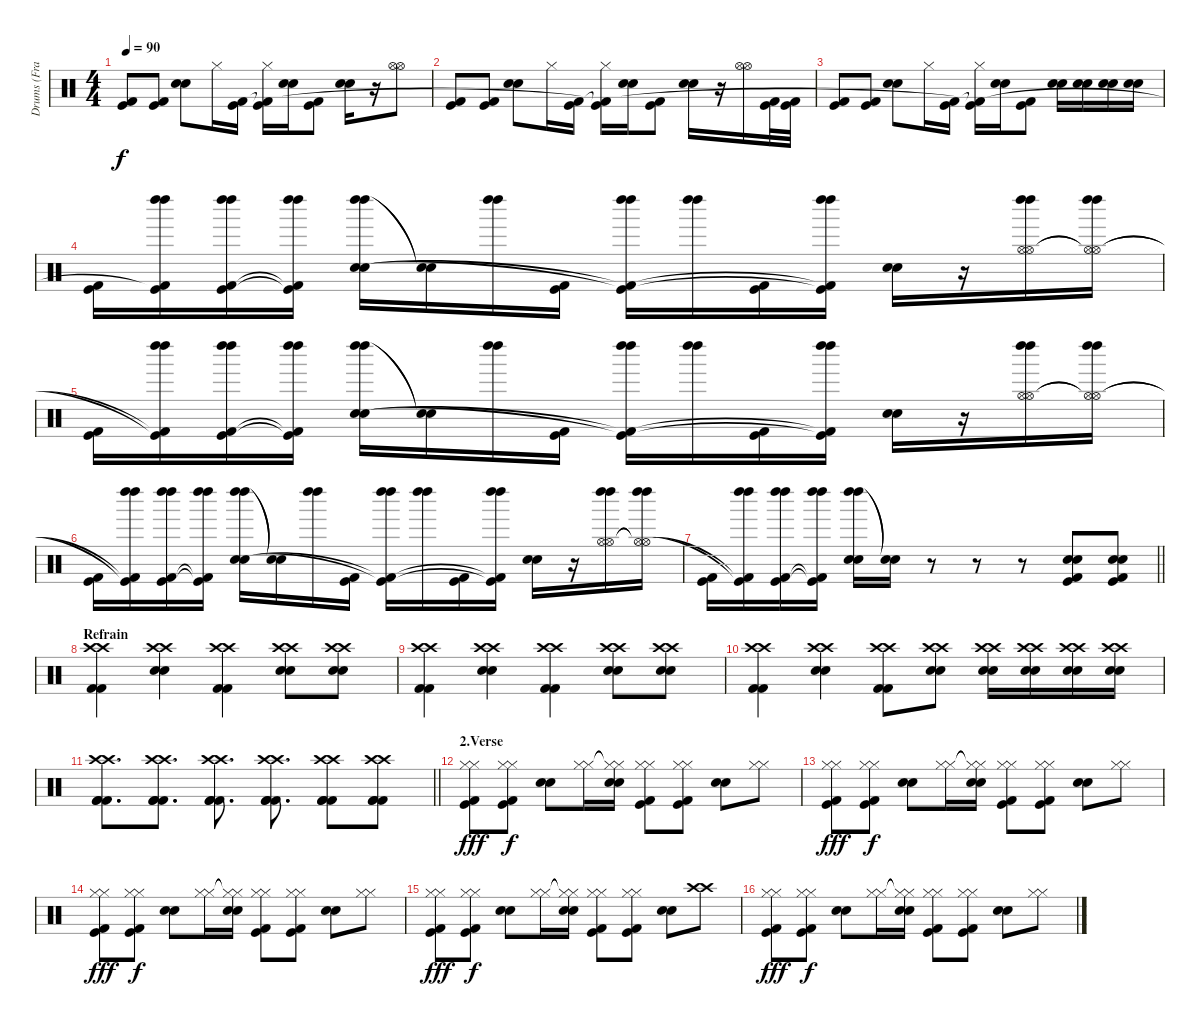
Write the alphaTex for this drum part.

\track ("Drums (Frank Ferrer)" "Drums (Fra") {instrument percussion}
\staff {score}
\articulation defaults
\ts (4 4)
\tempo 90
\clef neutral
\ks c
("Kick (hit)" "Kick (hit) 2").8{dy f} ("Kick (hit)" "Kick (hit) 2").8 ("Snare (hit) 2" "Snare (hit) 2").8 "Hi-Hat (closed)".16 ("Kick (hit)" "Kick (hit) 2").16 ("Hi-Hat (closed)" "Kick (hit)"{t} "Kick (hit) 2"{t}).16 ("Snare (hit) 2" "Snare (hit) 2").16 ("Kick (hit)" "Kick (hit) 2").8 ("Snare (hit) 2" "Snare (hit) 2").16 r.16 ("Hi-Hat (open)" "Hi-Hat (open)").8 |
("Kick (hit)" "Kick (hit) 2").8 ("Kick (hit)" "Kick (hit) 2").8 ("Snare (hit) 2" "Snare (hit) 2").8 "Hi-Hat (closed)".16 ("Kick (hit)" "Kick (hit) 2").16 ("Hi-Hat (closed)" "Kick (hit)"{t} "Kick (hit) 2"{t}).16 ("Snare (hit) 2" "Snare (hit) 2").16 ("Kick (hit)" "Kick (hit) 2").8 ("Snare (hit) 2" "Snare (hit) 2").16 r.16 ("Hi-Hat (open)" "Hi-Hat (open)").16 ("Kick (hit)" "Kick (hit) 2").32 ("Kick (hit)" "Kick (hit) 2").32 |
("Kick (hit)" "Kick (hit) 2").8 ("Kick (hit)" "Kick (hit) 2").8 ("Snare (hit) 2" "Snare (hit) 2").8 "Hi-Hat (closed)".16 ("Kick (hit)" "Kick (hit) 2").16 ("Hi-Hat (closed)" "Kick (hit)"{t} "Kick (hit) 2"{t}).16 ("Snare (hit) 2" "Snare (hit) 2").16 ("Kick (hit)" "Kick (hit) 2").8 ("Snare (hit) 2" "Snare (hit) 2").16 ("Snare (hit) 2" "Snare (hit) 2").16 ("Snare (hit) 2" "Snare (hit) 2").16 ("Snare (hit) 2" "Snare (hit) 2").16 |
("Kick (hit)" "Kick (hit) 2").16 ("Left Maraca (hit)" "Left Maraca (hit)" "Kick (hit)"{t} "Kick (hit) 2").16 ("Left Maraca (hit)" "Left Maraca (hit)" "Kick (hit)" "Kick (hit) 2").16 ("Left Maraca (hit)" "Left Maraca (hit)" "Kick (hit)"{t} "Kick (hit) 2"{t}).16 ("Left Maraca (hit)" "Left Maraca (hit)" "Snare (hit) 2" "Snare (hit) 2").16 ("Snare (hit) 2"{t} "Snare (hit) 2"{t}).16 ("Left Maraca (hit)" "Left Maraca (hit)").16 ("Kick (hit)" "Kick (hit) 2").16 ("Left Maraca (hit)" "Left Maraca (hit)" "Kick (hit)"{t} "Kick (hit) 2"{t}).16 ("Left Maraca (hit)" "Left Maraca (hit)").16 ("Kick (hit)" "Kick (hit) 2").16 ("Left Maraca (hit)" "Left Maraca (hit)" "Kick (hit)"{t} "Kick (hit) 2"{t}).16 ("Snare (hit) 2" "Snare (hit) 2").16 r.16 ("Left Maraca (hit)" "Left Maraca (hit)" "Hi-Hat (open)" "Hi-Hat (open)").16 ("Left Maraca (hit)" "Left Maraca (hit)" "Hi-Hat (open)"{t} "Hi-Hat (open)"{t}).16 |
("Kick (hit)" "Kick (hit) 2").16 ("Left Maraca (hit)" "Left Maraca (hit)" "Kick (hit)"{t} "Kick (hit) 2"{t}).16 ("Left Maraca (hit)" "Left Maraca (hit)" "Kick (hit)" "Kick (hit) 2").16 ("Left Maraca (hit)" "Left Maraca (hit)" "Kick (hit)"{t} "Kick (hit) 2"{t}).16 ("Left Maraca (hit)" "Left Maraca (hit)" "Snare (hit) 2" "Snare (hit) 2").16 ("Snare (hit) 2"{t} "Snare (hit) 2"{t}).16 ("Left Maraca (hit)" "Left Maraca (hit)").16 ("Kick (hit)" "Kick (hit) 2").16 ("Left Maraca (hit)" "Left Maraca (hit)" "Kick (hit)"{t} "Kick (hit) 2"{t}).16 ("Left Maraca (hit)" "Left Maraca (hit)").16 ("Kick (hit)" "Kick (hit) 2").16 ("Left Maraca (hit)" "Left Maraca (hit)" "Kick (hit)"{t} "Kick (hit) 2"{t}).16 ("Snare (hit) 2" "Snare (hit) 2").16 r.16 ("Left Maraca (hit)" "Left Maraca (hit)" "Hi-Hat (open)" "Hi-Hat (open)").16 ("Left Maraca (hit)" "Left Maraca (hit)" "Hi-Hat (open)"{t} "Hi-Hat (open)"{t}).16 |
("Kick (hit)" "Kick (hit) 2").16 ("Left Maraca (hit)" "Left Maraca (hit)" "Kick (hit)"{t} "Kick (hit) 2"{t}).16 ("Left Maraca (hit)" "Left Maraca (hit)" "Kick (hit)" "Kick (hit) 2").16 ("Left Maraca (hit)" "Left Maraca (hit)" "Kick (hit)"{t} "Kick (hit) 2"{t}).16 ("Left Maraca (hit)" "Left Maraca (hit)" "Snare (hit) 2" "Snare (hit) 2").16 ("Snare (hit) 2"{t} "Snare (hit) 2"{t}).16 ("Left Maraca (hit)" "Left Maraca (hit)").16 ("Kick (hit)" "Kick (hit) 2").16 ("Left Maraca (hit)" "Left Maraca (hit)" "Kick (hit)"{t} "Kick (hit) 2"{t}).16 ("Left Maraca (hit)" "Left Maraca (hit)").16 ("Kick (hit)" "Kick (hit) 2").16 ("Left Maraca (hit)" "Left Maraca (hit)" "Kick (hit)"{t} "Kick (hit) 2"{t}).16 ("Snare (hit) 2" "Snare (hit) 2").16 r.16 ("Left Maraca (hit)" "Left Maraca (hit)" "Hi-Hat (open)" "Hi-Hat (open)").16 ("Left Maraca (hit)" "Left Maraca (hit)" "Hi-Hat (open)"{t} "Hi-Hat (open)"{t}).16 |
\barLineRight lightlight
("Kick (hit)" "Kick (hit) 2").16 ("Left Maraca (hit)" "Left Maraca (hit)" "Kick (hit)"{t} "Kick (hit) 2"{t}).16 ("Left Maraca (hit)" "Left Maraca (hit)" "Kick (hit)" "Kick (hit) 2").16 ("Left Maraca (hit)" "Left Maraca (hit)" "Kick (hit)"{t} "Kick (hit) 2"{t}).16 ("Left Maraca (hit)" "Left Maraca (hit)" "Snare (hit) 2" "Snare (hit) 2").16 ("Snare (hit) 2"{t} "Snare (hit) 2"{t}).16 r.8 r.8 r.8 ("Snare (hit) 2" "Snare (hit) 2" "Kick (hit)" "Kick (hit) 2").8 ("Snare (hit) 2" "Snare (hit) 2" "Kick (hit)" "Kick (hit) 2").8 |
\section ("" "Refrain")
("Crash high (hit)" "Crash high (hit)" "Kick (hit) 2" "Kick (hit) 2").4 ("Crash high (hit)" "Crash high (hit)" "Snare (hit) 2" "Snare (hit) 2").4 ("Crash high (hit)" "Crash high (hit)" "Kick (hit) 2" "Kick (hit) 2").4 ("Crash high (hit)" "Crash high (hit)" "Snare (hit) 2" "Snare (hit) 2").8 ("Crash high (hit)" "Crash high (hit)" "Snare (hit) 2" "Snare (hit) 2").8 |
("Crash high (hit)" "Crash high (hit)" "Kick (hit) 2" "Kick (hit) 2").4 ("Crash high (hit)" "Crash high (hit)" "Snare (hit) 2" "Snare (hit) 2").4 ("Crash high (hit)" "Crash high (hit)" "Kick (hit) 2" "Kick (hit) 2").4 ("Crash high (hit)" "Crash high (hit)" "Snare (hit) 2" "Snare (hit) 2").8 ("Crash high (hit)" "Crash high (hit)" "Snare (hit) 2" "Snare (hit) 2").8 |
("Crash high (hit)" "Crash high (hit)" "Kick (hit) 2" "Kick (hit) 2").4 ("Crash high (hit)" "Crash high (hit)" "Snare (hit) 2" "Snare (hit) 2").4 ("Crash high (hit)" "Crash high (hit)" "Kick (hit) 2" "Kick (hit) 2").8 ("Crash high (hit)" "Crash high (hit)" "Snare (hit) 2" "Snare (hit) 2").8 ("Crash high (hit)" "Crash high (hit)" "Snare (hit) 2" "Snare (hit) 2").16 ("Crash high (hit)" "Crash high (hit)" "Snare (hit) 2" "Snare (hit) 2").16 ("Crash high (hit)" "Crash high (hit)" "Snare (hit) 2" "Snare (hit) 2").16 ("Crash high (hit)" "Crash high (hit)" "Snare (hit) 2" "Snare (hit) 2").16 |
\barLineRight lightlight
("Crash high (hit)" "Crash high (hit)" "Kick (hit) 2" "Kick (hit) 2" "Kick (hit) 2").8{d} ("Crash high (hit)" "Crash high (hit)" "Kick (hit) 2" "Kick (hit) 2" "Kick (hit) 2").8{d} ("Crash high (hit)" "Crash high (hit)" "Kick (hit) 2" "Kick (hit) 2" "Kick (hit) 2").8{d} ("Crash high (hit)" "Crash high (hit)" "Kick (hit) 2" "Kick (hit) 2" "Kick (hit) 2").8{d} ("Crash high (hit)" "Crash high (hit)" "Kick (hit) 2" "Kick (hit) 2" "Kick (hit) 2").8 ("Crash high (hit)" "Crash high (hit)" "Kick (hit) 2" "Kick (hit) 2" "Kick (hit) 2").8 |
\section ("" "2.Verse")
("Hi-Hat (closed)" "Hi-Hat (closed)" "Kick (hit)" "Kick (hit) 2").8{dy fff} ("Hi-Hat (closed)" "Hi-Hat (closed)" "Kick (hit)" "Kick (hit) 2").8{dy f} ("Snare (hit) 2" "Snare (hit) 2").8 ("Hi-Hat (closed)" "Hi-Hat (closed)").16 ("Hi-Hat (closed)"{t} "Hi-Hat (closed)"{t} "Snare (hit) 2" "Snare (hit) 2").16 ("Hi-Hat (closed)" "Hi-Hat (closed)" "Kick (hit)" "Kick (hit) 2").8 ("Hi-Hat (closed)" "Hi-Hat (closed)" "Kick (hit)" "Kick (hit) 2").8 ("Snare (hit) 2" "Snare (hit) 2").8 ("Hi-Hat (closed)" "Hi-Hat (closed)").8 |
("Hi-Hat (closed)" "Hi-Hat (closed)" "Kick (hit)" "Kick (hit) 2").8{dy fff} ("Hi-Hat (closed)" "Hi-Hat (closed)" "Kick (hit)" "Kick (hit) 2").8{dy f} ("Snare (hit) 2" "Snare (hit) 2").8 ("Hi-Hat (closed)" "Hi-Hat (closed)").16 ("Hi-Hat (closed)"{t} "Hi-Hat (closed)"{t} "Snare (hit) 2" "Snare (hit) 2").16 ("Hi-Hat (closed)" "Hi-Hat (closed)" "Kick (hit)" "Kick (hit) 2").8 ("Hi-Hat (closed)" "Hi-Hat (closed)" "Kick (hit)" "Kick (hit) 2").8 ("Snare (hit) 2" "Snare (hit) 2").8 ("Hi-Hat (closed)" "Hi-Hat (closed)").8 |
("Hi-Hat (closed)" "Hi-Hat (closed)" "Kick (hit)" "Kick (hit) 2").8{dy fff} ("Hi-Hat (closed)" "Hi-Hat (closed)" "Kick (hit)" "Kick (hit) 2").8{dy f} ("Snare (hit) 2" "Snare (hit) 2").8 ("Hi-Hat (closed)" "Hi-Hat (closed)").16 ("Hi-Hat (closed)"{t} "Hi-Hat (closed)"{t} "Snare (hit) 2" "Snare (hit) 2").16 ("Hi-Hat (closed)" "Hi-Hat (closed)" "Kick (hit)" "Kick (hit) 2").8 ("Hi-Hat (closed)" "Hi-Hat (closed)" "Kick (hit)" "Kick (hit) 2").8 ("Snare (hit) 2" "Snare (hit) 2").8 ("Hi-Hat (closed)" "Hi-Hat (closed)").8 |
("Hi-Hat (closed)" "Hi-Hat (closed)" "Kick (hit)" "Kick (hit) 2").8{dy fff} ("Hi-Hat (closed)" "Hi-Hat (closed)" "Kick (hit)" "Kick (hit) 2").8{dy f} ("Snare (hit) 2" "Snare (hit) 2").8 ("Hi-Hat (closed)" "Hi-Hat (closed)").16 ("Hi-Hat (closed)"{t} "Hi-Hat (closed)"{t} "Snare (hit) 2" "Snare (hit) 2").16 ("Hi-Hat (closed)" "Hi-Hat (closed)" "Kick (hit)" "Kick (hit) 2").8 ("Hi-Hat (closed)" "Hi-Hat (closed)" "Kick (hit)" "Kick (hit) 2").8 ("Snare (hit) 2" "Snare (hit) 2").8 ("Crash high (hit)" "Crash high (hit)").8 |
("Hi-Hat (closed)" "Hi-Hat (closed)" "Kick (hit)" "Kick (hit) 2").8{dy fff} ("Hi-Hat (closed)" "Hi-Hat (closed)" "Kick (hit)" "Kick (hit) 2").8{dy f} ("Snare (hit) 2" "Snare (hit) 2").8 ("Hi-Hat (closed)" "Hi-Hat (closed)").16 ("Hi-Hat (closed)"{t} "Hi-Hat (closed)"{t} "Snare (hit) 2" "Snare (hit) 2").16 ("Hi-Hat (closed)" "Hi-Hat (closed)" "Kick (hit)" "Kick (hit) 2").8 ("Hi-Hat (closed)" "Hi-Hat (closed)" "Kick (hit)" "Kick (hit) 2").8 ("Snare (hit) 2" "Snare (hit) 2").8 ("Hi-Hat (closed)" "Hi-Hat (closed)").8
